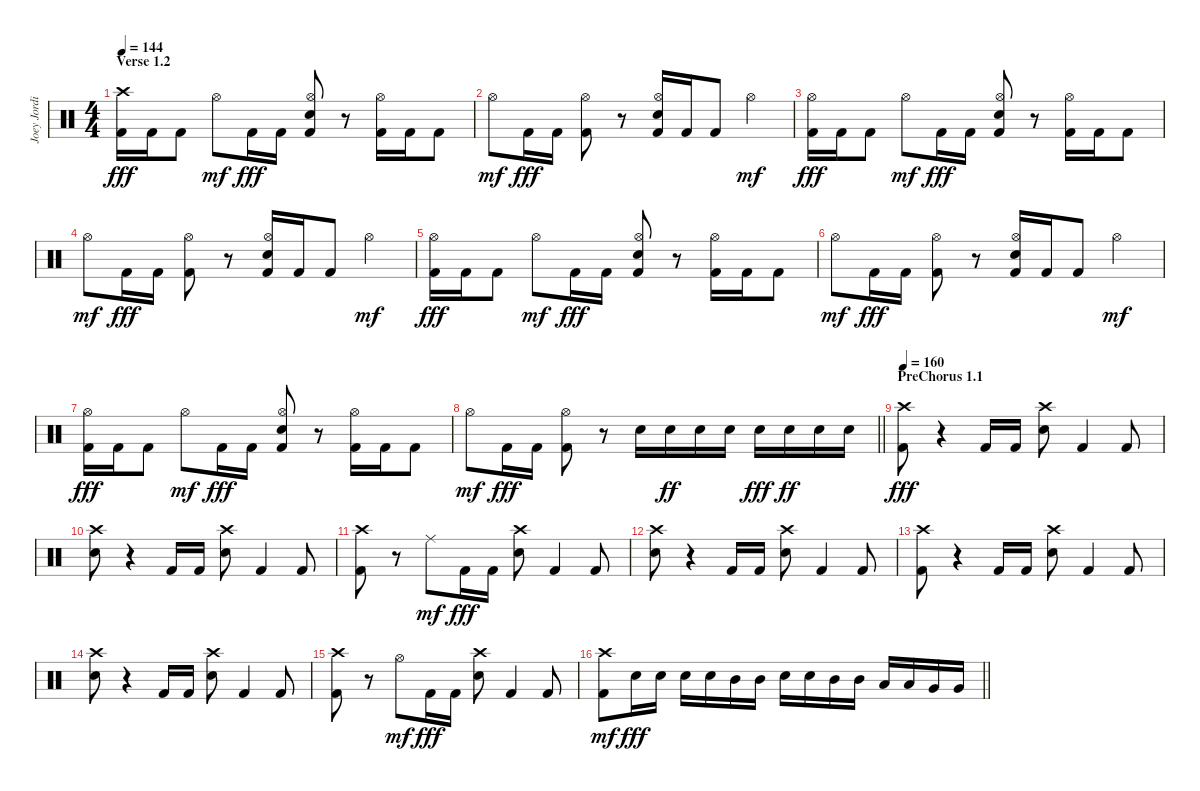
\track ("Joey Jordison" "Joey Jordi") {instrument percussion}
\staff {score}
\articulation defaults
\ts (4 4)
\section ("" "Verse 1.2")
\tempo 144
\clef neutral
\ks c
("Crash high (hit)" "Kick (hit) 2").16{dy fff} "Kick (hit) 2".16 "Kick (hit) 2".8 "Hi-Hat (open)".8{dy mf} "Kick (hit) 2".16{dy fff} "Kick (hit) 2".16 ("Hi-Hat (open)" "Electric Snare (hit)" "Kick (hit) 2").8 r.8 ("Hi-Hat (open)" "Kick (hit) 2").16 "Kick (hit) 2".16 "Kick (hit) 2".8 |
"Hi-Hat (open)".8{dy mf} "Kick (hit) 2".16{dy fff} "Kick (hit) 2".16 ("Hi-Hat (open)" "Kick (hit) 2").8 r.8 ("Hi-Hat (open)" "Electric Snare (hit)" "Kick (hit) 2").16 "Kick (hit) 2".16 "Kick (hit) 2".8 "Hi-Hat (open)".4{dy mf} |
("Hi-Hat (open)" "Kick (hit) 2").16{dy fff} "Kick (hit) 2".16 "Kick (hit) 2".8 "Hi-Hat (open)".8{dy mf} "Kick (hit) 2".16{dy fff} "Kick (hit) 2".16 ("Hi-Hat (open)" "Electric Snare (hit)" "Kick (hit) 2").8 r.8 ("Hi-Hat (open)" "Kick (hit) 2").16 "Kick (hit) 2".16 "Kick (hit) 2".8 |
"Hi-Hat (open)".8{dy mf} "Kick (hit) 2".16{dy fff} "Kick (hit) 2".16 ("Hi-Hat (open)" "Kick (hit) 2").8 r.8 ("Hi-Hat (open)" "Electric Snare (hit)" "Kick (hit) 2").16 "Kick (hit) 2".16 "Kick (hit) 2".8 "Hi-Hat (open)".4{dy mf} |
("Hi-Hat (open)" "Kick (hit) 2").16{dy fff} "Kick (hit) 2".16 "Kick (hit) 2".8 "Hi-Hat (open)".8{dy mf} "Kick (hit) 2".16{dy fff} "Kick (hit) 2".16 ("Hi-Hat (open)" "Electric Snare (hit)" "Kick (hit) 2").8 r.8 ("Hi-Hat (open)" "Kick (hit) 2").16 "Kick (hit) 2".16 "Kick (hit) 2".8 |
"Hi-Hat (open)".8{dy mf} "Kick (hit) 2".16{dy fff} "Kick (hit) 2".16 ("Hi-Hat (open)" "Kick (hit) 2").8 r.8 ("Hi-Hat (open)" "Electric Snare (hit)" "Kick (hit) 2").16 "Kick (hit) 2".16 "Kick (hit) 2".8 "Hi-Hat (open)".4{dy mf} |
("Hi-Hat (open)" "Kick (hit) 2").16{dy fff} "Kick (hit) 2".16 "Kick (hit) 2".8 "Hi-Hat (open)".8{dy mf} "Kick (hit) 2".16{dy fff} "Kick (hit) 2".16 ("Hi-Hat (open)" "Electric Snare (hit)" "Kick (hit) 2").8 r.8 ("Hi-Hat (open)" "Kick (hit) 2").16 "Kick (hit) 2".16 "Kick (hit) 2".8 |
\barLineRight lightlight "Hi-Hat (open)".8{dy mf} "Kick (hit) 2".16{dy fff} "Kick (hit) 2".16
("Hi-Hat (open)" "Kick (hit) 2").8 r.8 "Electric Snare (hit)".16 "Electric Snare (hit)".16{dy ff} "Electric Snare (hit)".16 "Electric Snare (hit)".16 "Electric Snare (hit)".16{dy fff} "Electric Snare (hit)".16{dy ff} "Electric Snare (hit)".16 "Electric Snare (hit)".16 |
\section ("" "PreChorus 1.1")
\tempo 160
("Crash high (hit)" "Kick (hit) 2").8{dy fff} r.4{volume 0} "Kick (hit) 2".16{volume 13} "Kick (hit) 2".16 ("Crash high (hit)" "Electric Snare (hit)").8 "Kick (hit) 2".4 "Kick (hit) 2".8 |
("Crash high (hit)" "Electric Snare (hit)").8 r.4 "Kick (hit) 2".16 "Kick (hit) 2".16 ("Crash high (hit)" "Electric Snare (hit)").8 "Kick (hit) 2".4 "Kick (hit) 2".8 |
("Crash high (hit)" "Kick (hit) 2").8 r.8{volume 0} "Ride (middle)".8{dy mf volume 13} "Kick (hit) 2".16{dy fff} "Kick (hit) 2".16 ("Crash high (hit)" "Electric Snare (hit)").8 "Kick (hit) 2".4 "Kick (hit) 2".8 |
("Crash high (hit)" "Electric Snare (hit)").8 r.4 "Kick (hit) 2".16 "Kick (hit) 2".16 ("Crash high (hit)" "Electric Snare (hit)").8 "Kick (hit) 2".4 "Kick (hit) 2".8 |
("Crash high (hit)" "Kick (hit) 2").8 r.4{volume 0} "Kick (hit) 2".16{volume 13} "Kick (hit) 2".16 ("Crash high (hit)" "Electric Snare (hit)").8 "Kick (hit) 2".4 "Kick (hit) 2".8 |
("Crash high (hit)" "Electric Snare (hit)").8 r.4 "Kick (hit) 2".16 "Kick (hit) 2".16 ("Crash high (hit)" "Electric Snare (hit)").8 "Kick (hit) 2".4 "Kick (hit) 2".8 |
("Crash high (hit)" "Kick (hit) 2").8 r.8{volume 0} "Hi-Hat (open)".8{dy mf volume 13} "Kick (hit) 2".16{dy fff} "Kick (hit) 2".16 ("Crash high (hit)" "Electric Snare (hit)").8 "Kick (hit) 2".4 "Kick (hit) 2".8 |
\barLineRight lightlight
("Crash high (hit)" "Kick (hit) 2").8{dy mf} "Electric Snare (hit)".16{dy fff} "Electric Snare (hit)".16 "Electric Snare (hit)".16 "Electric Snare (hit)".16 "Mid Tom (hit)".16 "Mid Tom (hit)".16 "Electric Snare (hit)".16 "Electric Snare (hit)".16 "Mid Tom (hit)".16 "Mid Tom (hit)".16 "Low Tom (hit)".16 "Low Tom (hit)".16 "Very Low Tom (hit)".16 "Very Low Tom (hit)".16
